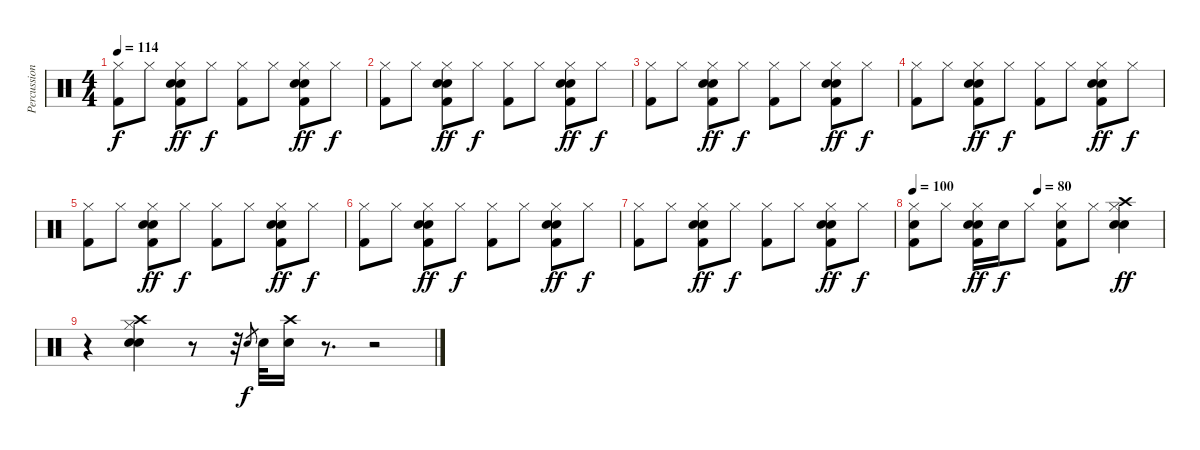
\track ("Percussion" "Percussion") {instrument percussion}
\staff {score}
\articulation defaults
\ts (4 4)
\tempo 114
\clef neutral
\ks c
("Hi-Hat (closed)" "Kick (hit) 2").8{dy f} "Hi-Hat (closed)".8 ("Hand Clap (hit)" "Hi-Hat (closed)" "Snare (hit) 2" "Kick (hit) 2").8{dy ff} "Hi-Hat (closed)".8{dy f} ("Hi-Hat (closed)" "Kick (hit) 2").8 "Hi-Hat (closed)".8 ("Hand Clap (hit)" "Hi-Hat (closed)" "Snare (hit) 2" "Kick (hit) 2").8{dy ff} "Hi-Hat (closed)".8{dy f} |
("Hi-Hat (closed)" "Kick (hit) 2").8 "Hi-Hat (closed)".8 ("Hand Clap (hit)" "Hi-Hat (closed)" "Snare (hit) 2" "Kick (hit) 2").8{dy ff} "Hi-Hat (closed)".8{dy f} ("Hi-Hat (closed)" "Kick (hit) 2").8 "Hi-Hat (closed)".8 ("Hand Clap (hit)" "Hi-Hat (closed)" "Snare (hit) 2" "Kick (hit) 2").8{dy ff} "Hi-Hat (closed)".8{dy f} |
("Hi-Hat (closed)" "Kick (hit) 2").8 "Hi-Hat (closed)".8 ("Hand Clap (hit)" "Hi-Hat (closed)" "Snare (hit) 2" "Kick (hit) 2").8{dy ff} "Hi-Hat (closed)".8{dy f} ("Hi-Hat (closed)" "Kick (hit) 2").8 "Hi-Hat (closed)".8 ("Hand Clap (hit)" "Hi-Hat (closed)" "Snare (hit) 2" "Kick (hit) 2").8{dy ff} "Hi-Hat (closed)".8{dy f} |
("Hi-Hat (closed)" "Kick (hit) 2").8 "Hi-Hat (closed)".8 ("Hand Clap (hit)" "Hi-Hat (closed)" "Snare (hit) 2" "Kick (hit) 2").8{dy ff} "Hi-Hat (closed)".8{dy f} ("Hi-Hat (closed)" "Kick (hit) 2").8 "Hi-Hat (closed)".8 ("Hand Clap (hit)" "Hi-Hat (closed)" "Snare (hit) 2" "Kick (hit) 2").8{dy ff} "Hi-Hat (closed)".8{dy f} |
("Hi-Hat (closed)" "Kick (hit) 2").8 "Hi-Hat (closed)".8 ("Hand Clap (hit)" "Hi-Hat (closed)" "Snare (hit) 2" "Kick (hit) 2").8{dy ff} "Hi-Hat (closed)".8{dy f} ("Hi-Hat (closed)" "Kick (hit) 2").8 "Hi-Hat (closed)".8 ("Hand Clap (hit)" "Hi-Hat (closed)" "Snare (hit) 2" "Kick (hit) 2").8{dy ff} "Hi-Hat (closed)".8{dy f} |
("Hi-Hat (closed)" "Kick (hit) 2").8 "Hi-Hat (closed)".8 ("Hand Clap (hit)" "Hi-Hat (closed)" "Snare (hit) 2" "Kick (hit) 2").8{dy ff} "Hi-Hat (closed)".8{dy f} ("Hi-Hat (closed)" "Kick (hit) 2").8 "Hi-Hat (closed)".8 ("Hand Clap (hit)" "Hi-Hat (closed)" "Snare (hit) 2" "Kick (hit) 2").8{dy ff} "Hi-Hat (closed)".8{dy f} |
("Hi-Hat (closed)" "Kick (hit) 2").8 "Hi-Hat (closed)".8 ("Hand Clap (hit)" "Hi-Hat (closed)" "Snare (hit) 2" "Kick (hit) 2").8{dy ff} "Hi-Hat (closed)".8{dy f} ("Hi-Hat (closed)" "Kick (hit) 2").8 "Hi-Hat (closed)".8 ("Hand Clap (hit)" "Hi-Hat (closed)" "Snare (hit) 2" "Kick (hit) 2").8{dy ff} "Hi-Hat (closed)".8{dy f} |
\tempo 100
\tempo (80 0.5)
("Hi-Hat (closed)" "Snare (hit) 2" "Kick (hit) 2").8 "Hi-Hat (closed)".8 ("Hand Clap (hit)" "Hi-Hat (closed)" "Snare (hit) 2" "Kick (hit) 2").16{dy ff} "Snare (hit) 2".16{dy f} "Hi-Hat (closed)".8 ("Hi-Hat (closed)" "Snare (hit) 2" "Kick (hit) 2").8 "Hi-Hat (closed)".8 ("Hand Clap (hit)" "Hi-Hat (closed)" "Snare (hit) 2" "Crash high (hit)").4{dy ff} |
r.4 ("Hand Clap (hit)" "Hi-Hat (closed)" "Snare (hit) 2" "Crash high (hit)").4 r.8 r.32 "Snare (hit) 2".8{gr dy f} "Snare (hit) 2".32 ("Snare (hit) 2" "Crash high (hit)").16 r.8{d} r.2
